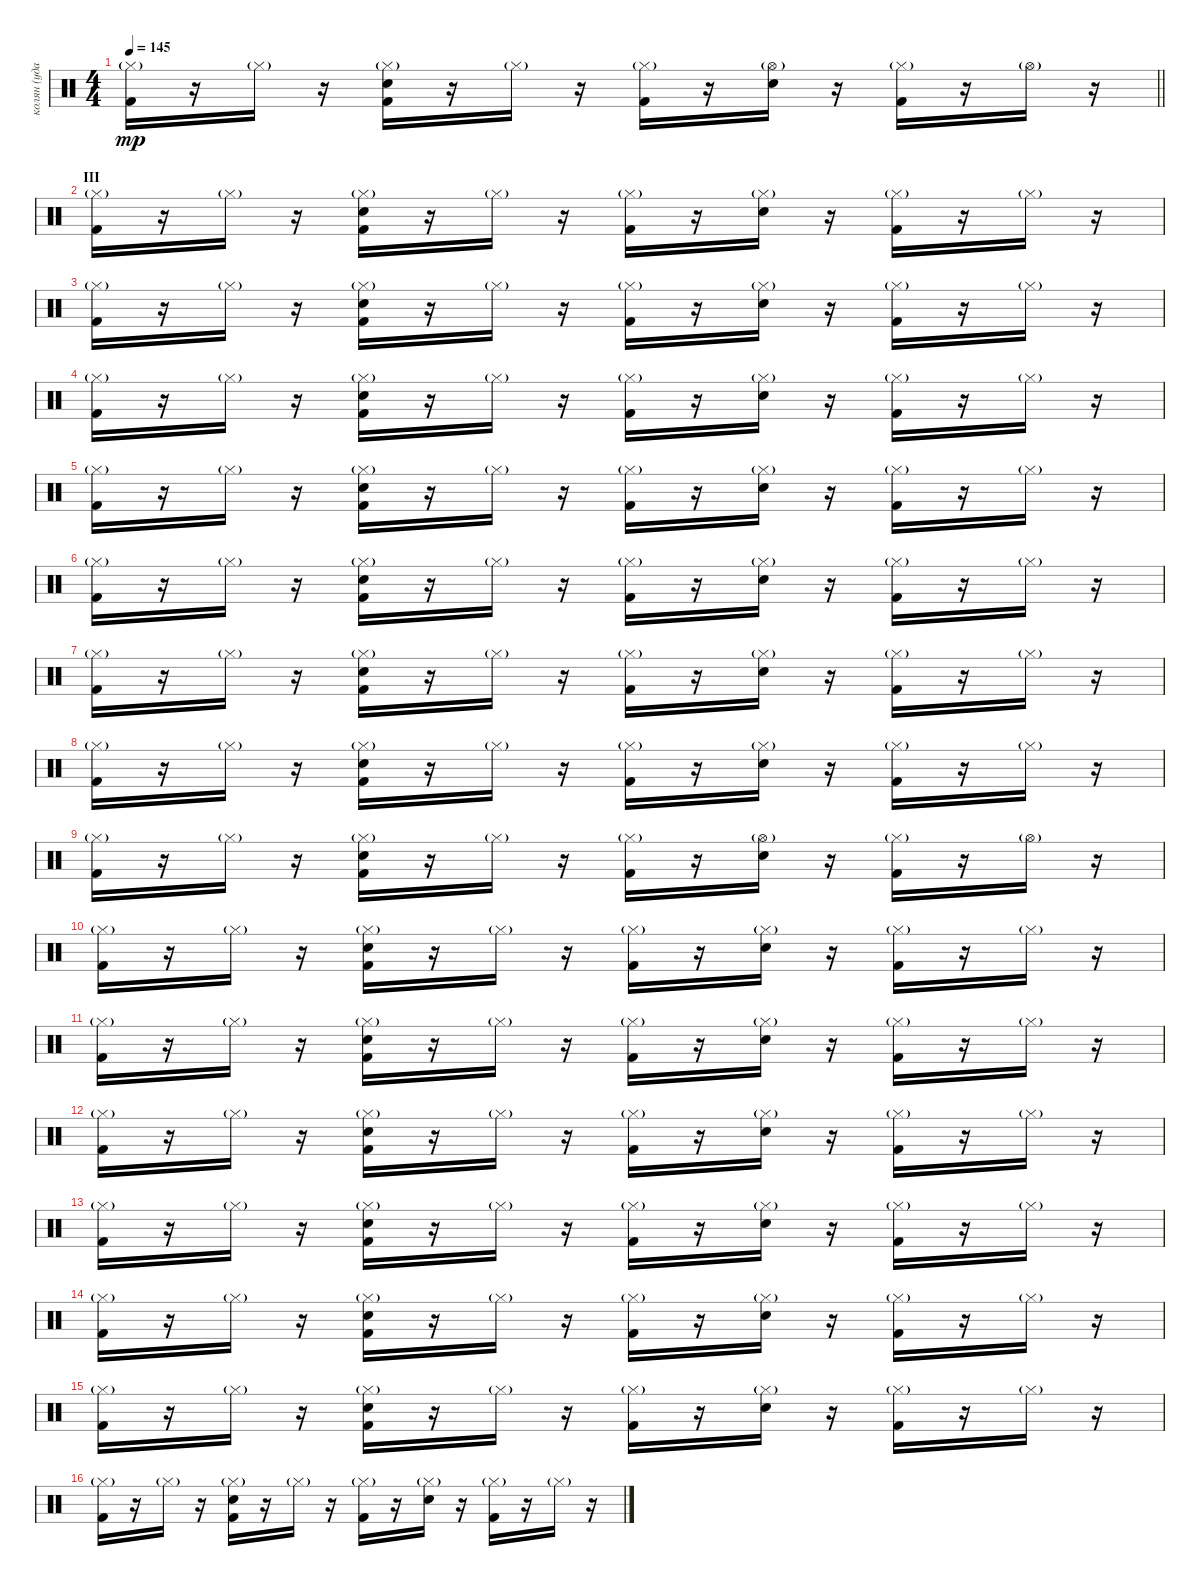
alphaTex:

\track ("колян (ударные)" "колян (уда") {instrument percussion}
\staff {score}
\articulation defaults
\ts (4 4)
\tempo 145
\clef neutral
\barLineRight lightlight
\ks c
("Kick (hit) 2" "Hi-Hat (closed)"{g}).16{dy mp} r.16 "Hi-Hat (closed)"{g}.16 r.16 ("Snare (hit) 2" "Kick (hit) 2" "Hi-Hat (closed)"{g}).16 r.16 "Hi-Hat (closed)"{g}.16 r.16 ("Kick (hit) 2" "Hi-Hat (closed)"{g}).16 r.16 ("Snare (hit) 2" "Hi-Hat (open)"{g}).16 r.16 ("Kick (hit) 2" "Hi-Hat (closed)"{g}).16 r.16 "Hi-Hat (open)"{g}.16 r.16 |
\section ("" "III")
("Kick (hit) 2" "Hi-Hat (closed)"{g}).16 r.16 "Hi-Hat (closed)"{g}.16 r.16 ("Snare (hit) 2" "Kick (hit) 2" "Hi-Hat (closed)"{g}).16 r.16 "Hi-Hat (closed)"{g}.16 r.16 ("Kick (hit) 2" "Hi-Hat (closed)"{g}).16 r.16 ("Snare (hit) 2" "Hi-Hat (closed)"{g}).16 r.16 ("Kick (hit) 2" "Hi-Hat (closed)"{g}).16 r.16 "Hi-Hat (closed)"{g}.16 r.16 |
("Kick (hit) 2" "Hi-Hat (closed)"{g}).16 r.16 "Hi-Hat (closed)"{g}.16 r.16 ("Snare (hit) 2" "Kick (hit) 2" "Hi-Hat (closed)"{g}).16 r.16 "Hi-Hat (closed)"{g}.16 r.16 ("Kick (hit) 2" "Hi-Hat (closed)"{g}).16 r.16 ("Snare (hit) 2" "Hi-Hat (closed)"{g}).16 r.16 ("Kick (hit) 2" "Hi-Hat (closed)"{g}).16 r.16 "Hi-Hat (closed)"{g}.16 r.16 |
("Kick (hit) 2" "Hi-Hat (closed)"{g}).16 r.16 "Hi-Hat (closed)"{g}.16 r.16 ("Snare (hit) 2" "Kick (hit) 2" "Hi-Hat (closed)"{g}).16 r.16 "Hi-Hat (closed)"{g}.16 r.16 ("Kick (hit) 2" "Hi-Hat (closed)"{g}).16 r.16 ("Snare (hit) 2" "Hi-Hat (closed)"{g}).16 r.16 ("Kick (hit) 2" "Hi-Hat (closed)"{g}).16 r.16 "Hi-Hat (closed)"{g}.16 r.16 |
("Kick (hit) 2" "Hi-Hat (closed)"{g}).16 r.16 "Hi-Hat (closed)"{g}.16 r.16 ("Snare (hit) 2" "Kick (hit) 2" "Hi-Hat (closed)"{g}).16 r.16 "Hi-Hat (closed)"{g}.16 r.16 ("Kick (hit) 2" "Hi-Hat (closed)"{g}).16 r.16 ("Snare (hit) 2" "Hi-Hat (closed)"{g}).16 r.16 ("Kick (hit) 2" "Hi-Hat (closed)"{g}).16 r.16 "Hi-Hat (closed)"{g}.16 r.16 |
("Kick (hit) 2" "Hi-Hat (closed)"{g}).16 r.16 "Hi-Hat (closed)"{g}.16 r.16 ("Snare (hit) 2" "Kick (hit) 2" "Hi-Hat (closed)"{g}).16 r.16 "Hi-Hat (closed)"{g}.16 r.16 ("Kick (hit) 2" "Hi-Hat (closed)"{g}).16 r.16 ("Snare (hit) 2" "Hi-Hat (closed)"{g}).16 r.16 ("Kick (hit) 2" "Hi-Hat (closed)"{g}).16 r.16 "Hi-Hat (closed)"{g}.16 r.16 |
("Kick (hit) 2" "Hi-Hat (closed)"{g}).16 r.16 "Hi-Hat (closed)"{g}.16 r.16 ("Snare (hit) 2" "Kick (hit) 2" "Hi-Hat (closed)"{g}).16 r.16 "Hi-Hat (closed)"{g}.16 r.16 ("Kick (hit) 2" "Hi-Hat (closed)"{g}).16 r.16 ("Snare (hit) 2" "Hi-Hat (closed)"{g}).16 r.16 ("Kick (hit) 2" "Hi-Hat (closed)"{g}).16 r.16 "Hi-Hat (closed)"{g}.16 r.16 |
("Kick (hit) 2" "Hi-Hat (closed)"{g}).16 r.16 "Hi-Hat (closed)"{g}.16 r.16 ("Snare (hit) 2" "Kick (hit) 2" "Hi-Hat (closed)"{g}).16 r.16 "Hi-Hat (closed)"{g}.16 r.16 ("Kick (hit) 2" "Hi-Hat (closed)"{g}).16 r.16 ("Snare (hit) 2" "Hi-Hat (closed)"{g}).16 r.16 ("Kick (hit) 2" "Hi-Hat (closed)"{g}).16 r.16 "Hi-Hat (closed)"{g}.16 r.16 |
("Kick (hit) 2" "Hi-Hat (closed)"{g}).16 r.16 "Hi-Hat (closed)"{g}.16 r.16 ("Snare (hit) 2" "Kick (hit) 2" "Hi-Hat (closed)"{g}).16 r.16 "Hi-Hat (closed)"{g}.16 r.16 ("Kick (hit) 2" "Hi-Hat (closed)"{g}).16 r.16 ("Snare (hit) 2" "Hi-Hat (open)"{g}).16 r.16 ("Kick (hit) 2" "Hi-Hat (closed)"{g}).16 r.16 "Hi-Hat (open)"{g}.16 r.16 |
("Kick (hit) 2" "Hi-Hat (closed)"{g}).16 r.16 "Hi-Hat (closed)"{g}.16 r.16 ("Snare (hit) 2" "Kick (hit) 2" "Hi-Hat (closed)"{g}).16 r.16 "Hi-Hat (closed)"{g}.16 r.16 ("Kick (hit) 2" "Hi-Hat (closed)"{g}).16 r.16 ("Snare (hit) 2" "Hi-Hat (closed)"{g}).16 r.16 ("Kick (hit) 2" "Hi-Hat (closed)"{g}).16 r.16 "Hi-Hat (closed)"{g}.16 r.16 |
("Kick (hit) 2" "Hi-Hat (closed)"{g}).16 r.16 "Hi-Hat (closed)"{g}.16 r.16 ("Snare (hit) 2" "Kick (hit) 2" "Hi-Hat (closed)"{g}).16 r.16 "Hi-Hat (closed)"{g}.16 r.16 ("Kick (hit) 2" "Hi-Hat (closed)"{g}).16 r.16 ("Snare (hit) 2" "Hi-Hat (closed)"{g}).16 r.16 ("Kick (hit) 2" "Hi-Hat (closed)"{g}).16 r.16 "Hi-Hat (closed)"{g}.16 r.16 |
("Kick (hit) 2" "Hi-Hat (closed)"{g}).16 r.16 "Hi-Hat (closed)"{g}.16 r.16 ("Snare (hit) 2" "Kick (hit) 2" "Hi-Hat (closed)"{g}).16 r.16 "Hi-Hat (closed)"{g}.16 r.16 ("Kick (hit) 2" "Hi-Hat (closed)"{g}).16 r.16 ("Snare (hit) 2" "Hi-Hat (closed)"{g}).16 r.16 ("Kick (hit) 2" "Hi-Hat (closed)"{g}).16 r.16 "Hi-Hat (closed)"{g}.16 r.16 |
("Kick (hit) 2" "Hi-Hat (closed)"{g}).16 r.16 "Hi-Hat (closed)"{g}.16 r.16 ("Snare (hit) 2" "Kick (hit) 2" "Hi-Hat (closed)"{g}).16 r.16 "Hi-Hat (closed)"{g}.16 r.16 ("Kick (hit) 2" "Hi-Hat (closed)"{g}).16 r.16 ("Snare (hit) 2" "Hi-Hat (closed)"{g}).16 r.16 ("Kick (hit) 2" "Hi-Hat (closed)"{g}).16 r.16 "Hi-Hat (closed)"{g}.16 r.16 |
("Kick (hit) 2" "Hi-Hat (closed)"{g}).16 r.16 "Hi-Hat (closed)"{g}.16 r.16 ("Snare (hit) 2" "Kick (hit) 2" "Hi-Hat (closed)"{g}).16 r.16 "Hi-Hat (closed)"{g}.16 r.16 ("Kick (hit) 2" "Hi-Hat (closed)"{g}).16 r.16 ("Snare (hit) 2" "Hi-Hat (closed)"{g}).16 r.16 ("Kick (hit) 2" "Hi-Hat (closed)"{g}).16 r.16 "Hi-Hat (closed)"{g}.16 r.16 |
("Kick (hit) 2" "Hi-Hat (closed)"{g}).16 r.16 "Hi-Hat (closed)"{g}.16 r.16 ("Snare (hit) 2" "Kick (hit) 2" "Hi-Hat (closed)"{g}).16 r.16 "Hi-Hat (closed)"{g}.16 r.16 ("Kick (hit) 2" "Hi-Hat (closed)"{g}).16 r.16 ("Snare (hit) 2" "Hi-Hat (closed)"{g}).16 r.16 ("Kick (hit) 2" "Hi-Hat (closed)"{g}).16 r.16 "Hi-Hat (closed)"{g}.16 r.16 |
("Kick (hit) 2" "Hi-Hat (closed)"{g}).16 r.16 "Hi-Hat (closed)"{g}.16 r.16 ("Snare (hit) 2" "Kick (hit) 2" "Hi-Hat (closed)"{g}).16 r.16 "Hi-Hat (closed)"{g}.16 r.16 ("Kick (hit) 2" "Hi-Hat (closed)"{g}).16 r.16 ("Snare (hit) 2" "Hi-Hat (closed)"{g}).16 r.16 ("Kick (hit) 2" "Hi-Hat (closed)"{g}).16 r.16 "Hi-Hat (closed)"{g}.16 r.16
